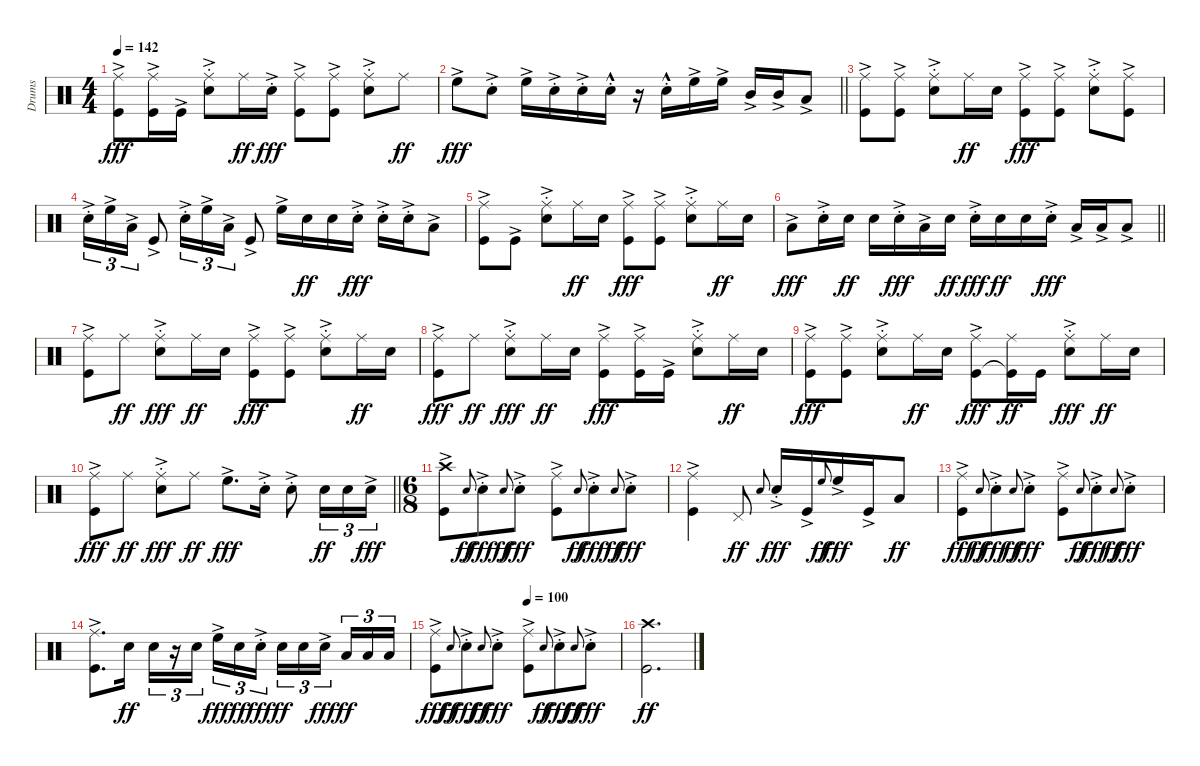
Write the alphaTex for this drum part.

\track ("Drums" "Drums") {instrument percussion}
\staff {score}
\articulation defaults
\ts (4 4)
\tempo 142
\clef neutral
\ks c
("Ride (middle)"{ac} "Kick (hit)"{ac}).8{dy fff} ("Ride (middle)"{ac} "Kick (hit)"{ac}).16 "Kick (hit)"{ac}.16 ("Ride (middle)"{ac st} "Snare (hit) 2"{ac st}).8 "Ride (middle)".16{dy ff} "Snare (hit) 2"{ac st}.16{dy fff} ("Ride (middle)"{ac} "Kick (hit)"{ac}).8 ("Ride (middle)"{ac} "Kick (hit)"{ac}).8 ("Ride (middle)"{ac st} "Snare (hit) 2"{ac st}).8 "Ride (middle)".8{dy ff} |
\barLineRight lightlight "High Floor Tom (hit)"{ac}.8{dy fff} "Snare (hit) 2"{ac st}.8 "High Floor Tom (hit)"{ac}.16 "Snare (hit) 2"{ac st}.16 "Snare (hit) 2"{ac st}.16 "Snare (hit) 2"{hac st}.16
r.16 "Snare (hit) 2"{hac st}.16 "High Floor Tom (hit)"{ac}.16 "High Floor Tom (hit)"{ac}.16 "Mid Tom (hit)"{ac}.16 "Mid Tom (hit)"{ac}.16 "Low Tom (hit)"{ac}.8 |
("Ride (middle)"{ac} "Kick (hit)"{ac}).8 ("Ride (middle)"{ac} "Kick (hit)"{ac}).8 ("Ride (middle)"{ac st} "Snare (hit) 2"{ac st}).8 "Ride (middle)".16{dy ff} "Snare (hit) 2".16 ("Ride (middle)"{ac} "Kick (hit)"{ac}).8{dy fff} ("Ride (middle)"{ac} "Kick (hit)"{ac}).8 ("Ride (middle)"{ac st} "Snare (hit) 2"{ac st}).8 ("Ride (middle)"{ac} "Kick (hit)"{ac}).8 |
"Snare (hit) 2"{ac st}.16{tu (3 2)} "High Floor Tom (hit)"{ac}.16{tu (3 2)} "Low Tom (hit)"{ac}.16{tu (3 2)} "Kick (hit)"{ac}.8 "Snare (hit) 2"{ac st}.16{tu (3 2)} "High Floor Tom (hit)"{ac}.16{tu (3 2)} "Low Tom (hit)"{ac}.16{tu (3 2)} "Kick (hit)"{ac}.8 "High Floor Tom (hit)"{ac}.16 "Snare (hit) 2".16{dy ff} "Snare (hit) 2".16 "Snare (hit) 2"{ac st}.16{dy fff} "Snare (hit) 2"{ac st}.16 "Snare (hit) 2"{ac st}.16 "Low Tom (hit)"{ac}.8 |
("Ride (middle)"{ac} "Kick (hit)"{ac}).8 "Kick (hit)"{ac}.8 ("Ride (middle)"{ac st} "Snare (hit) 2"{ac st}).8 "Ride (middle)".16{dy ff} "Snare (hit) 2".16 ("Ride (middle)"{ac} "Kick (hit)"{ac}).8{dy fff} ("Ride (middle)"{ac} "Kick (hit)"{ac}).8 ("Ride (middle)"{ac st} "Snare (hit) 2"{ac st}).8 "Ride (middle)".16{dy ff} "Snare (hit) 2".16 |
\barLineRight lightlight "Low Tom (hit)"{ac}.8{dy fff} "Snare (hit) 2"{ac st}.16 "Snare (hit) 2".16{dy ff} "Snare (hit) 2".16 "Snare (hit) 2"{ac st}.16{dy fff} "Low Tom (hit)"{ac}.16 "Snare (hit) 2".16{dy ff} "Snare (hit) 2"{ac st}.16{dy fff} "Snare (hit) 2".16{dy ff} "Snare (hit) 2".16 "Snare (hit) 2"{ac st}.16{dy fff} "Low Tom (hit)"{ac}.16 "Low Tom (hit)"{ac}.16 "Low Tom (hit)"{ac}.8
|
("Ride (middle)"{ac} "Kick (hit)"{ac}).8 "Ride (middle)".8{dy ff} ("Ride (middle)"{ac st} "Snare (hit) 2"{ac st}).8{dy fff} "Ride (middle)".16{dy ff} "Snare (hit) 2".16 ("Ride (middle)"{ac} "Kick (hit)"{ac}).8{dy fff} ("Ride (middle)"{ac} "Kick (hit)"{ac}).8 ("Ride (middle)"{ac st} "Snare (hit) 2"{ac st}).8 "Ride (middle)".16{dy ff} "Snare (hit) 2".16 |
("Ride (middle)"{ac} "Kick (hit)"{ac}).8{dy fff} "Ride (middle)".8{dy ff} ("Ride (middle)"{ac st} "Snare (hit) 2"{ac st}).8{dy fff} "Ride (middle)".16{dy ff} "Snare (hit) 2".16 ("Ride (middle)"{ac} "Kick (hit)"{ac}).8{dy fff} ("Ride (middle)"{ac} "Kick (hit)"{ac}).16 "Kick (hit)"{ac}.16 ("Ride (middle)"{ac st} "Snare (hit) 2"{ac st}).8 "Ride (middle)".16{dy ff} "Snare (hit) 2".16 |
("Ride (middle)"{ac} "Kick (hit)"{ac}).8{dy fff} ("Ride (middle)"{ac} "Kick (hit)"{ac}).8 ("Ride (middle)"{ac st} "Snare (hit) 2"{ac st}).8 "Ride (middle)".16{dy ff} "Snare (hit) 2".16 ("Ride (middle)"{ac} "Kick (hit)"{ac}).8{dy fff} ("Ride (middle)" "Kick (hit)"{t}).16{dy ff} "Kick (hit)".16 ("Ride (middle)"{ac st} "Snare (hit) 2"{ac st}).8{dy fff} "Ride (middle)".16{dy ff} "Snare (hit) 2".16 |
\barLineRight lightlight
("Ride (middle)"{ac} "Kick (hit)"{ac}).8{dy fff} "Ride (middle)".8{dy ff} ("Ride (middle)"{ac st} "Snare (hit) 2"{ac st}).8{dy fff} "Ride (middle)".8{dy ff} "High Floor Tom (hit)"{ac}.8{d dy fff} "Snare (hit) 2"{ac st}.16 "Snare (hit) 2"{ac st}.8 "Snare (hit) 2".16{tu (3 2) dy ff} "Snare (hit) 2".16{tu (3 2)} "Snare (hit) 2"{ac}.16{tu (3 2) dy fff} |
\ts (6 8)
("Crash high (hit)"{ac} "Kick (hit)"{ac}).8 "Snare (hit) 2"{h}.8{gr onbeat dy ff} "Snare (hit) 2"{ac st}.8{dy fff} "Snare (hit) 2"{h}.8{gr onbeat dy ff} "Snare (hit) 2"{ac st}.8{dy fff} ("Ride (middle)"{ac} "Kick (hit)"{ac}).8 "Snare (hit) 2"{h}.8{gr onbeat dy ff} "Snare (hit) 2"{ac st}.8{dy fff} "Snare (hit) 2"{h}.8{gr onbeat dy ff} "Snare (hit) 2"{ac st}.8{dy fff} |
("Ride (middle)"{ac} "Kick (hit)"{ac}).4 "Pedal Hi-Hat (hit)".8{dy ff} "Snare (hit) 2"{h}.8{gr onbeat} "Snare (hit) 2"{ac st}.16{dy fff} "Kick (hit)"{ac}.16 "High Floor Tom (hit)"{h}.8{gr onbeat dy ff} "High Floor Tom (hit)"{ac}.16{dy fff} "Kick (hit)"{ac}.16 "Low Tom (hit)".8{dy ff} |
("Ride (middle)"{ac} "Kick (hit)"{ac}).8{dy fff} "Snare (hit) 2"{h}.8{gr onbeat dy ff} "Snare (hit) 2"{ac st}.8{dy fff} "Snare (hit) 2"{h}.8{gr onbeat dy ff} "Snare (hit) 2"{ac st}.8{dy fff} ("Ride (middle)"{ac} "Kick (hit)"{ac}).8 "Snare (hit) 2"{h}.8{gr onbeat dy ff} "Snare (hit) 2"{ac st}.8{dy fff} "Snare (hit) 2"{h}.8{gr onbeat dy ff} "Snare (hit) 2"{ac st}.8{dy fff} |
("Ride (middle)"{ac} "Kick (hit)"{ac}).8{d} "Snare (hit) 2".16{dy ff} "Snare (hit) 2".16{tu (3 2)} r.16{tu (3 2)} "Snare (hit) 2".16{tu (3 2)} "High Floor Tom (hit)"{ac}.16{tu (3 2) dy fff} "Snare (hit) 2".16{tu (3 2) dy ff} "Snare (hit) 2"{ac st}.16{tu (3 2) dy fff beam splitsecondary} "Snare (hit) 2".16{tu (3 2) dy ff} "Snare (hit) 2".16{tu (3 2)} "Snare (hit) 2"{ac}.16{tu (3 2) dy fff beam splitsecondary} "Low Tom (hit)".16{tu (3 2) dy ff} "Low Tom (hit)".16{tu (3 2)} "Low Tom (hit)".16{tu (3 2)} |
\tempo (100 0.5)
("Ride (middle)"{ac} "Kick (hit)"{ac}).8{dy fff} "Snare (hit) 2"{h}.8{gr onbeat dy ff} "Snare (hit) 2"{ac st}.8{dy fff} "Snare (hit) 2"{h}.8{gr onbeat dy ff} "Snare (hit) 2"{ac st}.8{dy fff} ("Ride (middle)"{ac} "Kick (hit)"{ac}).8 "Snare (hit) 2"{h}.8{gr onbeat dy ff} "Snare (hit) 2"{ac st}.8{dy fff} "Snare (hit) 2"{h}.8{gr onbeat dy ff} "Snare (hit) 2"{ac st}.8{dy fff} |
("Crash high (hit)" "Kick (hit)").2{d dy ff}
